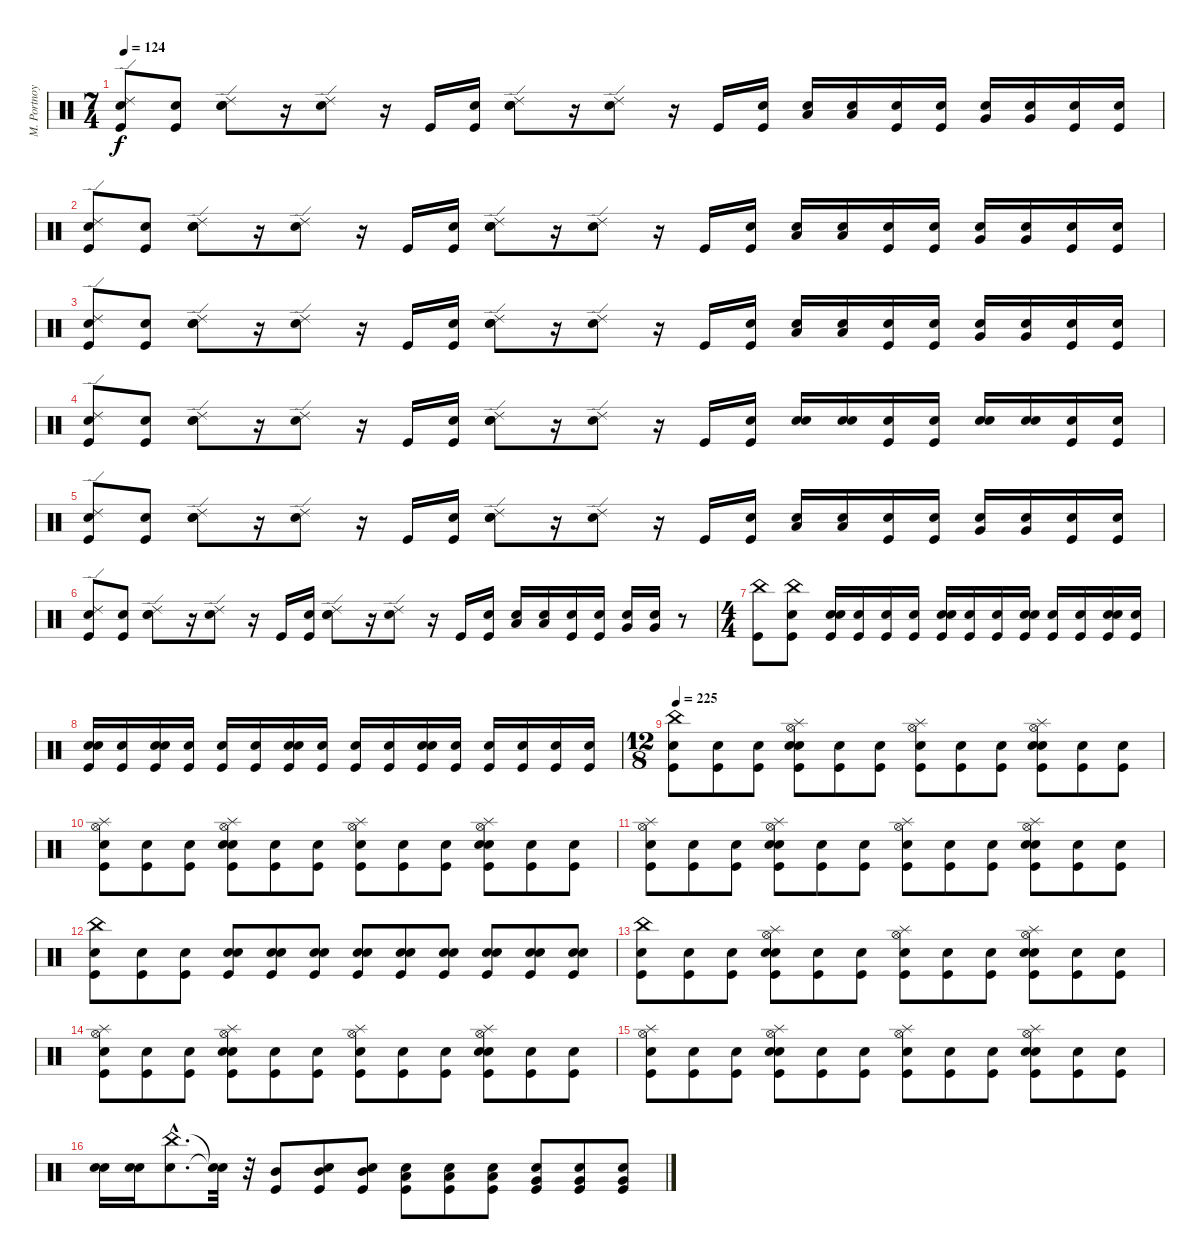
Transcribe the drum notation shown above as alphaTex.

\track ("M. Portnoy" "M. Portnoy") {instrument percussion}
\staff {score}
\articulation defaults
\ts (7 4)
\tempo 124
\clef neutral
\ks c
("Snare (hit)" "Kick (hit)" "Ride (edge) 2").8{dy f} ("Snare (hit)" "Kick (hit)").8 ("Snare (hit)" "Snare (hit) 2" "Ride (edge) 2").8 r.16 ("Snare (hit) 2" "Ride (edge) 2").8 r.16 "Kick (hit)".16 ("Snare (hit)" "Kick (hit)").16 ("Snare (hit)" "Snare (hit) 2" "Ride (edge) 2").8 r.16 ("Snare (hit) 2" "Ride (edge) 2").8 r.16 "Kick (hit)".16 ("Snare (hit)" "Kick (hit)").16 ("Snare (hit)" "Low Tom (hit)").16 ("Snare (hit)" "Low Tom (hit)").16 ("Snare (hit)" "Kick (hit)").16 ("Snare (hit)" "Kick (hit)").16 ("Snare (hit)" "Very Low Tom (hit)").16 ("Snare (hit)" "Very Low Tom (hit)").16 ("Snare (hit)" "Kick (hit)").16 ("Snare (hit)" "Kick (hit)").16 |
("Snare (hit)" "Kick (hit)" "Ride (edge) 2").8 ("Snare (hit)" "Kick (hit)").8 ("Snare (hit)" "Snare (hit) 2" "Ride (edge) 2").8 r.16 ("Snare (hit) 2" "Ride (edge) 2").8 r.16 "Kick (hit)".16 ("Snare (hit)" "Kick (hit)").16 ("Snare (hit)" "Snare (hit) 2" "Ride (edge) 2").8 r.16 ("Snare (hit) 2" "Ride (edge) 2").8 r.16 "Kick (hit)".16 ("Snare (hit)" "Kick (hit)").16 ("Snare (hit)" "Low Tom (hit)").16 ("Snare (hit)" "Low Tom (hit)").16 ("Snare (hit)" "Kick (hit)").16 ("Snare (hit)" "Kick (hit)").16 ("Snare (hit)" "Very Low Tom (hit)").16 ("Snare (hit)" "Very Low Tom (hit)").16 ("Snare (hit)" "Kick (hit)").16 ("Snare (hit)" "Kick (hit)").16 |
("Snare (hit)" "Kick (hit)" "Ride (edge) 2").8 ("Snare (hit)" "Kick (hit)").8 ("Snare (hit)" "Snare (hit) 2" "Ride (edge) 2").8 r.16 ("Snare (hit) 2" "Ride (edge) 2").8 r.16 "Kick (hit)".16 ("Snare (hit)" "Kick (hit)").16 ("Snare (hit)" "Snare (hit) 2" "Ride (edge) 2").8 r.16 ("Snare (hit) 2" "Ride (edge) 2").8 r.16 "Kick (hit)".16 ("Snare (hit)" "Kick (hit)").16 ("Snare (hit)" "Low Tom (hit)").16 ("Snare (hit)" "Low Tom (hit)").16 ("Snare (hit)" "Kick (hit)").16 ("Snare (hit)" "Kick (hit)").16 ("Snare (hit)" "Very Low Tom (hit)").16 ("Snare (hit)" "Very Low Tom (hit)").16 ("Snare (hit)" "Kick (hit)").16 ("Snare (hit)" "Kick (hit)").16 |
("Snare (hit)" "Kick (hit)" "Ride (edge) 2").8 ("Snare (hit)" "Kick (hit)").8 ("Snare (hit)" "Snare (hit) 2" "Ride (edge) 2").8 r.16 ("Snare (hit) 2" "Ride (edge) 2").8 r.16 "Kick (hit)".16 ("Snare (hit)" "Kick (hit)").16 ("Snare (hit)" "Snare (hit) 2" "Ride (edge) 2").8 r.16 ("Snare (hit) 2" "Ride (edge) 2").8 r.16 "Kick (hit)".16 ("Snare (hit)" "Kick (hit)").16 ("Snare (hit)" "Snare (hit) 2").16 ("Snare (hit)" "Snare (hit) 2").16 ("Snare (hit)" "Kick (hit)").16 ("Snare (hit)" "Kick (hit)").16 ("Snare (hit)" "Snare (hit) 2").16 ("Snare (hit)" "Snare (hit) 2").16 ("Snare (hit)" "Kick (hit)").16 ("Snare (hit)" "Kick (hit)").16 |
("Snare (hit)" "Kick (hit)" "Ride (edge) 2").8 ("Snare (hit)" "Kick (hit)").8 ("Snare (hit)" "Snare (hit) 2" "Ride (edge) 2").8 r.16 ("Snare (hit) 2" "Ride (edge) 2").8 r.16 "Kick (hit)".16 ("Snare (hit)" "Kick (hit)").16 ("Snare (hit)" "Snare (hit) 2" "Ride (edge) 2").8 r.16 ("Snare (hit) 2" "Ride (edge) 2").8 r.16 "Kick (hit)".16 ("Snare (hit)" "Kick (hit)").16 ("Snare (hit)" "Low Tom (hit)").16 ("Snare (hit)" "Low Tom (hit)").16 ("Snare (hit)" "Kick (hit)").16 ("Snare (hit)" "Kick (hit)").16 ("Snare (hit)" "Very Low Tom (hit)").16 ("Snare (hit)" "Very Low Tom (hit)").16 ("Snare (hit)" "Kick (hit)").16 ("Snare (hit)" "Kick (hit)").16 |
("Snare (hit)" "Kick (hit)" "Ride (edge) 2").8 ("Snare (hit)" "Kick (hit)").8 ("Snare (hit)" "Snare (hit) 2" "Ride (edge) 2").8 r.16 ("Snare (hit) 2" "Ride (edge) 2").8 r.16 "Kick (hit)".16 ("Snare (hit)" "Kick (hit)").16 ("Snare (hit)" "Snare (hit) 2" "Ride (edge) 2").8 r.16 ("Snare (hit) 2" "Ride (edge) 2").8 r.16 "Kick (hit)".16 ("Snare (hit)" "Kick (hit)").16 ("Snare (hit)" "Low Tom (hit)").16 ("Snare (hit)" "Low Tom (hit)").16 ("Snare (hit)" "Kick (hit)").16 ("Snare (hit)" "Kick (hit)").16 ("Snare (hit)" "Very Low Tom (hit)").16 ("Snare (hit)" "Very Low Tom (hit)").16 r.8 |
\ts (4 4)
("Kick (hit)" "China (hit)").8 ("Snare (hit)" "Kick (hit)" "China (hit)").8 ("Snare (hit)" "Kick (hit)" "Snare (hit) 2").16 ("Snare (hit)" "Kick (hit)").16 ("Snare (hit)" "Kick (hit)").16 ("Snare (hit)" "Kick (hit)").16 ("Snare (hit)" "Kick (hit)" "Snare (hit) 2").16 ("Snare (hit)" "Kick (hit)").16 ("Snare (hit)" "Kick (hit)").16 ("Snare (hit)" "Kick (hit)" "Snare (hit) 2").16 ("Snare (hit)" "Kick (hit)").16 ("Snare (hit)" "Kick (hit)").16 ("Snare (hit)" "Kick (hit)" "Snare (hit) 2").16 ("Snare (hit)" "Kick (hit)").16 |
("Snare (hit)" "Kick (hit)" "Snare (hit) 2").16 ("Snare (hit)" "Kick (hit)").16 ("Snare (hit)" "Kick (hit)" "Snare (hit) 2").16 ("Snare (hit)" "Kick (hit)").16 ("Snare (hit)" "Kick (hit)").16 ("Snare (hit)" "Kick (hit)").16 ("Snare (hit)" "Kick (hit)" "Snare (hit) 2").16 ("Snare (hit)" "Kick (hit)").16 ("Snare (hit)" "Kick (hit)").16 ("Snare (hit)" "Kick (hit)").16 ("Snare (hit)" "Kick (hit)" "Snare (hit) 2").16 ("Snare (hit)" "Kick (hit)").16 ("Snare (hit)" "Kick (hit)").16 ("Snare (hit)" "Kick (hit)").16 ("Snare (hit)" "Kick (hit)").16 ("Snare (hit)" "Kick (hit)").16 |
\ts (12 8)
\tempo 225
("Snare (hit)" "Kick (hit)" "China (hit)").8 ("Snare (hit)" "Kick (hit)").8 ("Snare (hit)" "Kick (hit)").8 ("Snare (hit)" "Kick (hit)" "Snare (hit) 2" "Hi-Hat (open)" "Splash (hit)").8 ("Snare (hit)" "Kick (hit)").8 ("Snare (hit)" "Kick (hit)").8 ("Snare (hit)" "Kick (hit)" "Hi-Hat (open)" "Splash (hit)").8 ("Snare (hit)" "Kick (hit)").8 ("Snare (hit)" "Kick (hit)").8 ("Snare (hit)" "Kick (hit)" "Snare (hit) 2" "Hi-Hat (open)" "Splash (hit)").8 ("Snare (hit)" "Kick (hit)").8 ("Snare (hit)" "Kick (hit)").8 |
("Snare (hit)" "Kick (hit)" "Hi-Hat (open)" "Splash (hit)").8 ("Snare (hit)" "Kick (hit)").8 ("Snare (hit)" "Kick (hit)").8 ("Snare (hit)" "Kick (hit)" "Snare (hit) 2" "Hi-Hat (open)" "Splash (hit)").8 ("Snare (hit)" "Kick (hit)").8 ("Snare (hit)" "Kick (hit)").8 ("Snare (hit)" "Kick (hit)" "Hi-Hat (open)" "Splash (hit)").8 ("Snare (hit)" "Kick (hit)").8 ("Snare (hit)" "Kick (hit)").8 ("Snare (hit)" "Kick (hit)" "Snare (hit) 2" "Hi-Hat (open)" "Splash (hit)").8 ("Snare (hit)" "Kick (hit)").8 ("Snare (hit)" "Kick (hit)").8 |
("Snare (hit)" "Kick (hit)" "Hi-Hat (open)" "Splash (hit)").8 ("Snare (hit)" "Kick (hit)").8 ("Snare (hit)" "Kick (hit)").8 ("Snare (hit)" "Kick (hit)" "Snare (hit) 2" "Hi-Hat (open)" "Splash (hit)").8 ("Snare (hit)" "Kick (hit)").8 ("Snare (hit)" "Kick (hit)").8 ("Snare (hit)" "Kick (hit)" "Hi-Hat (open)" "Splash (hit)").8 ("Snare (hit)" "Kick (hit)").8 ("Snare (hit)" "Kick (hit)").8 ("Snare (hit)" "Kick (hit)" "Snare (hit) 2" "Hi-Hat (open)" "Splash (hit)").8 ("Snare (hit)" "Kick (hit)").8 ("Snare (hit)" "Kick (hit)").8 |
("Snare (hit)" "Kick (hit)" "China (hit)").8 ("Snare (hit)" "Kick (hit)").8 ("Snare (hit)" "Kick (hit)").8 ("Snare (hit)" "Kick (hit)" "Snare (hit) 2").8 ("Snare (hit)" "Kick (hit)" "Snare (hit) 2").8 ("Snare (hit)" "Kick (hit)" "Snare (hit) 2").8 ("Snare (hit)" "Kick (hit)" "Snare (hit) 2").8 ("Snare (hit)" "Kick (hit)" "Snare (hit) 2").8 ("Snare (hit)" "Kick (hit)" "Snare (hit) 2").8 ("Snare (hit)" "Kick (hit)" "Snare (hit) 2").8 ("Snare (hit)" "Kick (hit)" "Snare (hit) 2").8 ("Snare (hit)" "Kick (hit)" "Snare (hit) 2").8 |
("Snare (hit)" "Kick (hit)" "China (hit)").8 ("Snare (hit)" "Kick (hit)").8 ("Snare (hit)" "Kick (hit)").8 ("Snare (hit)" "Kick (hit)" "Snare (hit) 2" "Hi-Hat (open)" "Splash (hit)").8 ("Snare (hit)" "Kick (hit)").8 ("Snare (hit)" "Kick (hit)").8 ("Snare (hit)" "Kick (hit)" "Hi-Hat (open)" "Splash (hit)").8 ("Snare (hit)" "Kick (hit)").8 ("Snare (hit)" "Kick (hit)").8 ("Snare (hit)" "Kick (hit)" "Snare (hit) 2" "Hi-Hat (open)" "Splash (hit)").8 ("Snare (hit)" "Kick (hit)").8 ("Snare (hit)" "Kick (hit)").8 |
("Snare (hit)" "Kick (hit)" "Hi-Hat (open)" "Splash (hit)").8 ("Snare (hit)" "Kick (hit)").8 ("Snare (hit)" "Kick (hit)").8 ("Snare (hit)" "Kick (hit)" "Snare (hit) 2" "Hi-Hat (open)" "Splash (hit)").8 ("Snare (hit)" "Kick (hit)").8 ("Snare (hit)" "Kick (hit)").8 ("Snare (hit)" "Kick (hit)" "Hi-Hat (open)" "Splash (hit)").8 ("Snare (hit)" "Kick (hit)").8 ("Snare (hit)" "Kick (hit)").8 ("Snare (hit)" "Kick (hit)" "Snare (hit) 2" "Hi-Hat (open)" "Splash (hit)").8 ("Snare (hit)" "Kick (hit)").8 ("Snare (hit)" "Kick (hit)").8 |
("Snare (hit)" "Kick (hit)" "Hi-Hat (open)" "Splash (hit)").8 ("Snare (hit)" "Kick (hit)").8 ("Snare (hit)" "Kick (hit)").8 ("Snare (hit)" "Kick (hit)" "Snare (hit) 2" "Hi-Hat (open)" "Splash (hit)").8 ("Snare (hit)" "Kick (hit)").8 ("Snare (hit)" "Kick (hit)").8 ("Snare (hit)" "Kick (hit)" "Hi-Hat (open)" "Splash (hit)").8 ("Snare (hit)" "Kick (hit)").8 ("Snare (hit)" "Kick (hit)").8 ("Snare (hit)" "Kick (hit)" "Snare (hit) 2" "Hi-Hat (open)" "Splash (hit)").8 ("Snare (hit)" "Kick (hit)").8 ("Snare (hit)" "Kick (hit)").8 |
("Snare (hit)" "Snare (hit) 2").16 ("Snare (hit)" "Snare (hit) 2").16 ("Snare (hit)"{hac} "China (hit)"{hac}).8{d} ("Snare (hit)"{t} "Snare (hit)"{t}).32 r.32 ("Kick (hit)" "Mid Tom (hit)").8 ("Snare (hit)" "Kick (hit)" "Mid Tom (hit)").8 ("Snare (hit)" "Kick (hit)" "Mid Tom (hit)").8 ("Snare (hit)" "Kick (hit)" "Low Tom (hit)").8 ("Snare (hit)" "Kick (hit)" "Low Tom (hit)").8 ("Snare (hit)" "Kick (hit)" "Low Tom (hit)").8 ("Snare (hit)" "Kick (hit)" "Very Low Tom (hit)").8 ("Snare (hit)" "Kick (hit)" "Very Low Tom (hit)").8 ("Snare (hit)" "Kick (hit)" "Very Low Tom (hit)").8
